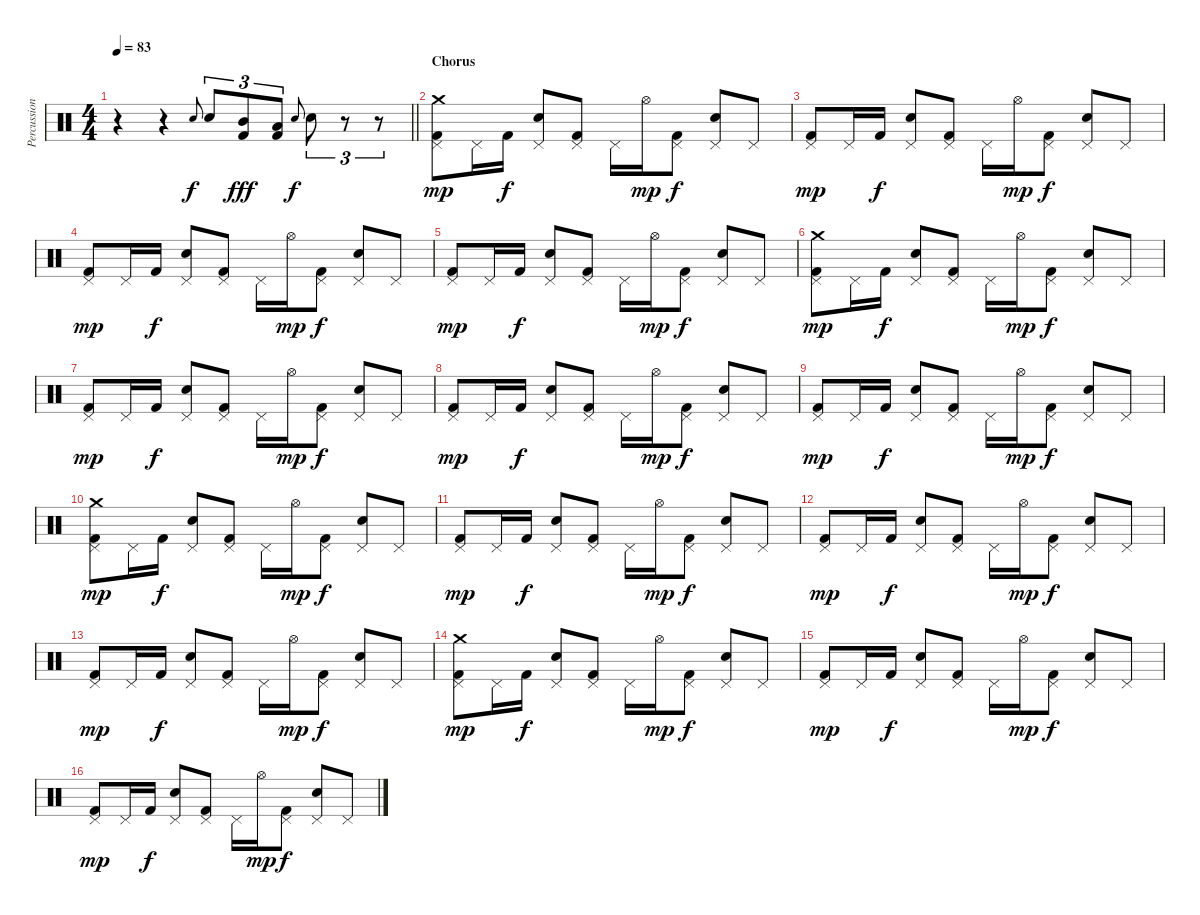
\track ("Percussion" "Percussion") {instrument percussion}
\staff {score}
\articulation defaults
\ts (4 4)
\tempo 83
\clef neutral
\barLineRight lightlight
\ks c
r.4{dy f} r.4 "Electric Snare (hit)".8{gr onbeat} "Electric Snare (hit)".8{tu (3 2)} ("Kick (hit) 2" "Mid Tom (hit)").8{tu (3 2) dy fff} ("Kick (hit) 2" "Low Tom (hit)").8{tu (3 2)} "Electric Snare (hit)".8{gr onbeat dy f} "Electric Snare (hit)".8{tu (3 2)} r.8{tu (3 2)} r.8{tu (3 2)} |
\section ("" "Chorus")
("Pedal Hi-Hat (hit)" "Kick (hit) 2" "Crash medium (hit)").8{dy mp} "Pedal Hi-Hat (hit)".16 "Kick (hit) 2".16{dy f} ("Pedal Hi-Hat (hit)" "Electric Snare (hit)").8 ("Pedal Hi-Hat (hit)" "Kick (hit) 2").8 "Pedal Hi-Hat (hit)".16 "Hi-Hat (open)".16{dy mp} ("Pedal Hi-Hat (hit)" "Kick (hit) 2").8{dy f} ("Pedal Hi-Hat (hit)" "Electric Snare (hit)").8 "Pedal Hi-Hat (hit)".8 |
("Pedal Hi-Hat (hit)" "Kick (hit) 2").8{dy mp} "Pedal Hi-Hat (hit)".16 "Kick (hit) 2".16{dy f} ("Pedal Hi-Hat (hit)" "Electric Snare (hit)").8 ("Pedal Hi-Hat (hit)" "Kick (hit) 2").8 "Pedal Hi-Hat (hit)".16 "Hi-Hat (open)".16{dy mp} ("Pedal Hi-Hat (hit)" "Kick (hit) 2").8{dy f} ("Pedal Hi-Hat (hit)" "Electric Snare (hit)").8 "Pedal Hi-Hat (hit)".8 |
("Pedal Hi-Hat (hit)" "Kick (hit) 2").8{dy mp} "Pedal Hi-Hat (hit)".16 "Kick (hit) 2".16{dy f} ("Pedal Hi-Hat (hit)" "Electric Snare (hit)").8 ("Pedal Hi-Hat (hit)" "Kick (hit) 2").8 "Pedal Hi-Hat (hit)".16 "Hi-Hat (open)".16{dy mp} ("Pedal Hi-Hat (hit)" "Kick (hit) 2").8{dy f} ("Pedal Hi-Hat (hit)" "Electric Snare (hit)").8 "Pedal Hi-Hat (hit)".8 |
("Pedal Hi-Hat (hit)" "Kick (hit) 2").8{dy mp} "Pedal Hi-Hat (hit)".16 "Kick (hit) 2".16{dy f} ("Pedal Hi-Hat (hit)" "Electric Snare (hit)").8 ("Pedal Hi-Hat (hit)" "Kick (hit) 2").8 "Pedal Hi-Hat (hit)".16 "Hi-Hat (open)".16{dy mp} ("Pedal Hi-Hat (hit)" "Kick (hit) 2").8{dy f} ("Pedal Hi-Hat (hit)" "Electric Snare (hit)").8 "Pedal Hi-Hat (hit)".8 |
("Pedal Hi-Hat (hit)" "Kick (hit) 2" "Crash medium (hit)").8{dy mp} "Pedal Hi-Hat (hit)".16 "Kick (hit) 2".16{dy f} ("Pedal Hi-Hat (hit)" "Electric Snare (hit)").8 ("Pedal Hi-Hat (hit)" "Kick (hit) 2").8 "Pedal Hi-Hat (hit)".16 "Hi-Hat (open)".16{dy mp} ("Pedal Hi-Hat (hit)" "Kick (hit) 2").8{dy f} ("Pedal Hi-Hat (hit)" "Electric Snare (hit)").8 "Pedal Hi-Hat (hit)".8 |
("Pedal Hi-Hat (hit)" "Kick (hit) 2").8{dy mp} "Pedal Hi-Hat (hit)".16 "Kick (hit) 2".16{dy f} ("Pedal Hi-Hat (hit)" "Electric Snare (hit)").8 ("Pedal Hi-Hat (hit)" "Kick (hit) 2").8 "Pedal Hi-Hat (hit)".16 "Hi-Hat (open)".16{dy mp} ("Pedal Hi-Hat (hit)" "Kick (hit) 2").8{dy f} ("Pedal Hi-Hat (hit)" "Electric Snare (hit)").8 "Pedal Hi-Hat (hit)".8 |
("Pedal Hi-Hat (hit)" "Kick (hit) 2").8{dy mp} "Pedal Hi-Hat (hit)".16 "Kick (hit) 2".16{dy f} ("Pedal Hi-Hat (hit)" "Electric Snare (hit)").8 ("Pedal Hi-Hat (hit)" "Kick (hit) 2").8 "Pedal Hi-Hat (hit)".16 "Hi-Hat (open)".16{dy mp} ("Pedal Hi-Hat (hit)" "Kick (hit) 2").8{dy f} ("Pedal Hi-Hat (hit)" "Electric Snare (hit)").8 "Pedal Hi-Hat (hit)".8 |
("Pedal Hi-Hat (hit)" "Kick (hit) 2").8{dy mp} "Pedal Hi-Hat (hit)".16 "Kick (hit) 2".16{dy f} ("Pedal Hi-Hat (hit)" "Electric Snare (hit)").8 ("Pedal Hi-Hat (hit)" "Kick (hit) 2").8 "Pedal Hi-Hat (hit)".16 "Hi-Hat (open)".16{dy mp} ("Pedal Hi-Hat (hit)" "Kick (hit) 2").8{dy f} ("Pedal Hi-Hat (hit)" "Electric Snare (hit)").8 "Pedal Hi-Hat (hit)".8 |
("Pedal Hi-Hat (hit)" "Kick (hit) 2" "Crash medium (hit)").8{dy mp} "Pedal Hi-Hat (hit)".16 "Kick (hit) 2".16{dy f} ("Pedal Hi-Hat (hit)" "Electric Snare (hit)").8 ("Pedal Hi-Hat (hit)" "Kick (hit) 2").8 "Pedal Hi-Hat (hit)".16 "Hi-Hat (open)".16{dy mp} ("Pedal Hi-Hat (hit)" "Kick (hit) 2").8{dy f} ("Pedal Hi-Hat (hit)" "Electric Snare (hit)").8 "Pedal Hi-Hat (hit)".8 |
("Pedal Hi-Hat (hit)" "Kick (hit) 2").8{dy mp} "Pedal Hi-Hat (hit)".16 "Kick (hit) 2".16{dy f} ("Pedal Hi-Hat (hit)" "Electric Snare (hit)").8 ("Pedal Hi-Hat (hit)" "Kick (hit) 2").8 "Pedal Hi-Hat (hit)".16 "Hi-Hat (open)".16{dy mp} ("Pedal Hi-Hat (hit)" "Kick (hit) 2").8{dy f} ("Pedal Hi-Hat (hit)" "Electric Snare (hit)").8 "Pedal Hi-Hat (hit)".8 |
("Pedal Hi-Hat (hit)" "Kick (hit) 2").8{dy mp} "Pedal Hi-Hat (hit)".16 "Kick (hit) 2".16{dy f} ("Pedal Hi-Hat (hit)" "Electric Snare (hit)").8 ("Pedal Hi-Hat (hit)" "Kick (hit) 2").8 "Pedal Hi-Hat (hit)".16 "Hi-Hat (open)".16{dy mp} ("Pedal Hi-Hat (hit)" "Kick (hit) 2").8{dy f} ("Pedal Hi-Hat (hit)" "Electric Snare (hit)").8 "Pedal Hi-Hat (hit)".8 |
("Pedal Hi-Hat (hit)" "Kick (hit) 2").8{dy mp} "Pedal Hi-Hat (hit)".16 "Kick (hit) 2".16{dy f} ("Pedal Hi-Hat (hit)" "Electric Snare (hit)").8 ("Pedal Hi-Hat (hit)" "Kick (hit) 2").8 "Pedal Hi-Hat (hit)".16 "Hi-Hat (open)".16{dy mp} ("Pedal Hi-Hat (hit)" "Kick (hit) 2").8{dy f} ("Pedal Hi-Hat (hit)" "Electric Snare (hit)").8 "Pedal Hi-Hat (hit)".8 |
("Pedal Hi-Hat (hit)" "Kick (hit) 2" "Crash medium (hit)").8{dy mp} "Pedal Hi-Hat (hit)".16 "Kick (hit) 2".16{dy f} ("Pedal Hi-Hat (hit)" "Electric Snare (hit)").8 ("Pedal Hi-Hat (hit)" "Kick (hit) 2").8 "Pedal Hi-Hat (hit)".16 "Hi-Hat (open)".16{dy mp} ("Pedal Hi-Hat (hit)" "Kick (hit) 2").8{dy f} ("Pedal Hi-Hat (hit)" "Electric Snare (hit)").8 "Pedal Hi-Hat (hit)".8 |
("Pedal Hi-Hat (hit)" "Kick (hit) 2").8{dy mp} "Pedal Hi-Hat (hit)".16 "Kick (hit) 2".16{dy f} ("Pedal Hi-Hat (hit)" "Electric Snare (hit)").8 ("Pedal Hi-Hat (hit)" "Kick (hit) 2").8 "Pedal Hi-Hat (hit)".16 "Hi-Hat (open)".16{dy mp} ("Pedal Hi-Hat (hit)" "Kick (hit) 2").8{dy f} ("Pedal Hi-Hat (hit)" "Electric Snare (hit)").8 "Pedal Hi-Hat (hit)".8 |
("Pedal Hi-Hat (hit)" "Kick (hit) 2").8{dy mp} "Pedal Hi-Hat (hit)".16 "Kick (hit) 2".16{dy f} ("Pedal Hi-Hat (hit)" "Electric Snare (hit)").8 ("Pedal Hi-Hat (hit)" "Kick (hit) 2").8 "Pedal Hi-Hat (hit)".16 "Hi-Hat (open)".16{dy mp} ("Pedal Hi-Hat (hit)" "Kick (hit) 2").8{dy f} ("Pedal Hi-Hat (hit)" "Electric Snare (hit)").8 "Pedal Hi-Hat (hit)".8
